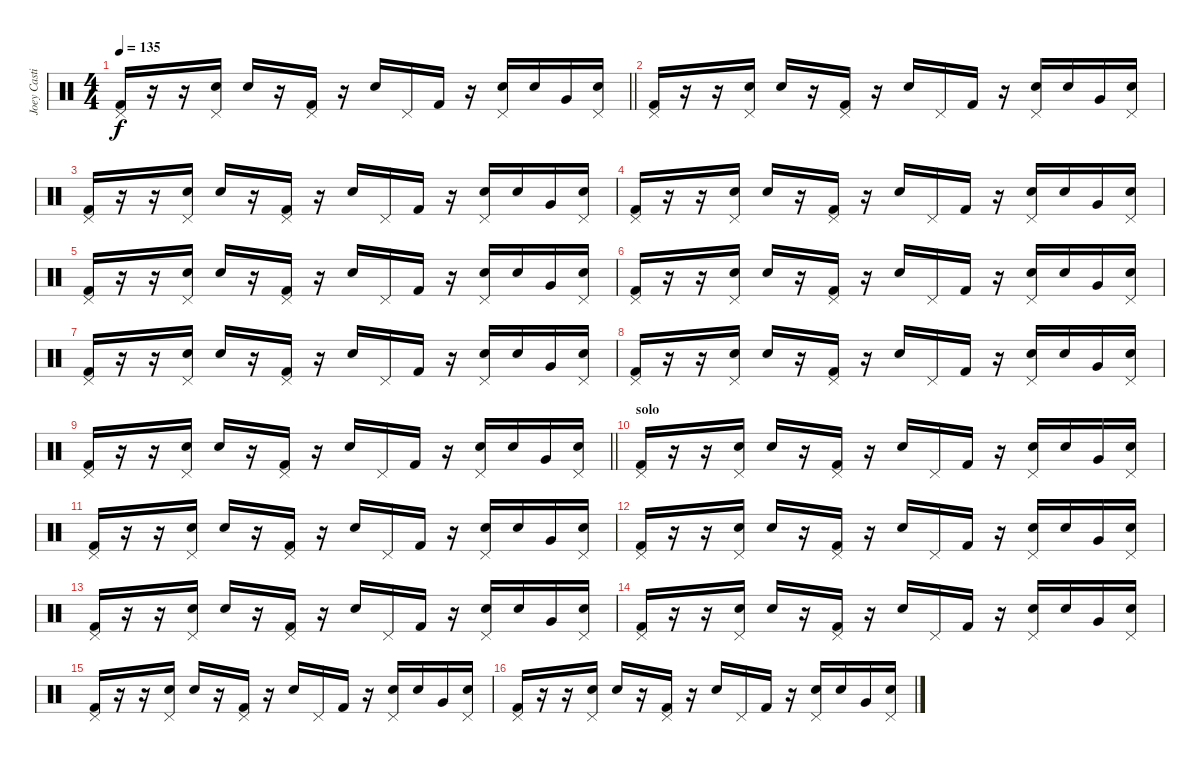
\track ("Joey Castillo" "Joey Casti") {instrument percussion}
\staff {score}
\articulation defaults
\ts (4 4)
\tempo 135
\clef neutral
\barLineRight lightlight
\ks c
("Kick (hit) 2" "Pedal Hi-Hat (hit)").16{dy f} r.16 r.16 ("Electric Snare (hit)" "Pedal Hi-Hat (hit)").16 "Electric Snare (hit)".16 r.16 ("Kick (hit) 2" "Pedal Hi-Hat (hit)").16 r.16 "Electric Snare (hit)".16 "Pedal Hi-Hat (hit)".16 "Kick (hit) 2".16 r.16 ("Electric Snare (hit)" "Pedal Hi-Hat (hit)").16 "Electric Snare (hit)".16 "Very Low Tom (hit)".16 ("Electric Snare (hit)" "Pedal Hi-Hat (hit)").16 |
("Kick (hit) 2" "Pedal Hi-Hat (hit)").16 r.16 r.16 ("Electric Snare (hit)" "Pedal Hi-Hat (hit)").16 "Electric Snare (hit)".16 r.16 ("Kick (hit) 2" "Pedal Hi-Hat (hit)").16 r.16 "Electric Snare (hit)".16 "Pedal Hi-Hat (hit)".16 "Kick (hit) 2".16 r.16 ("Electric Snare (hit)" "Pedal Hi-Hat (hit)").16 "Electric Snare (hit)".16 "Very Low Tom (hit)".16 ("Electric Snare (hit)" "Pedal Hi-Hat (hit)").16 |
("Kick (hit) 2" "Pedal Hi-Hat (hit)").16 r.16 r.16 ("Electric Snare (hit)" "Pedal Hi-Hat (hit)").16 "Electric Snare (hit)".16 r.16 ("Kick (hit) 2" "Pedal Hi-Hat (hit)").16 r.16 "Electric Snare (hit)".16 "Pedal Hi-Hat (hit)".16 "Kick (hit) 2".16 r.16 ("Electric Snare (hit)" "Pedal Hi-Hat (hit)").16 "Electric Snare (hit)".16 "Very Low Tom (hit)".16 ("Electric Snare (hit)" "Pedal Hi-Hat (hit)").16 |
("Kick (hit) 2" "Pedal Hi-Hat (hit)").16 r.16 r.16 ("Electric Snare (hit)" "Pedal Hi-Hat (hit)").16 "Electric Snare (hit)".16 r.16 ("Kick (hit) 2" "Pedal Hi-Hat (hit)").16 r.16 "Electric Snare (hit)".16 "Pedal Hi-Hat (hit)".16 "Kick (hit) 2".16 r.16 ("Electric Snare (hit)" "Pedal Hi-Hat (hit)").16 "Electric Snare (hit)".16 "Very Low Tom (hit)".16 ("Electric Snare (hit)" "Pedal Hi-Hat (hit)").16 |
("Kick (hit) 2" "Pedal Hi-Hat (hit)").16 r.16 r.16 ("Electric Snare (hit)" "Pedal Hi-Hat (hit)").16 "Electric Snare (hit)".16 r.16 ("Kick (hit) 2" "Pedal Hi-Hat (hit)").16 r.16 "Electric Snare (hit)".16 "Pedal Hi-Hat (hit)".16 "Kick (hit) 2".16 r.16 ("Electric Snare (hit)" "Pedal Hi-Hat (hit)").16 "Electric Snare (hit)".16 "Very Low Tom (hit)".16 ("Electric Snare (hit)" "Pedal Hi-Hat (hit)").16 |
("Kick (hit) 2" "Pedal Hi-Hat (hit)").16 r.16 r.16 ("Electric Snare (hit)" "Pedal Hi-Hat (hit)").16 "Electric Snare (hit)".16 r.16 ("Kick (hit) 2" "Pedal Hi-Hat (hit)").16 r.16 "Electric Snare (hit)".16 "Pedal Hi-Hat (hit)".16 "Kick (hit) 2".16 r.16 ("Electric Snare (hit)" "Pedal Hi-Hat (hit)").16 "Electric Snare (hit)".16 "Very Low Tom (hit)".16 ("Electric Snare (hit)" "Pedal Hi-Hat (hit)").16 |
("Kick (hit) 2" "Pedal Hi-Hat (hit)").16 r.16 r.16 ("Electric Snare (hit)" "Pedal Hi-Hat (hit)").16 "Electric Snare (hit)".16 r.16 ("Kick (hit) 2" "Pedal Hi-Hat (hit)").16 r.16 "Electric Snare (hit)".16 "Pedal Hi-Hat (hit)".16 "Kick (hit) 2".16 r.16 ("Electric Snare (hit)" "Pedal Hi-Hat (hit)").16 "Electric Snare (hit)".16 "Very Low Tom (hit)".16 ("Electric Snare (hit)" "Pedal Hi-Hat (hit)").16 |
("Kick (hit) 2" "Pedal Hi-Hat (hit)").16 r.16 r.16 ("Electric Snare (hit)" "Pedal Hi-Hat (hit)").16 "Electric Snare (hit)".16 r.16 ("Kick (hit) 2" "Pedal Hi-Hat (hit)").16 r.16 "Electric Snare (hit)".16 "Pedal Hi-Hat (hit)".16 "Kick (hit) 2".16 r.16 ("Electric Snare (hit)" "Pedal Hi-Hat (hit)").16 "Electric Snare (hit)".16 "Very Low Tom (hit)".16 ("Electric Snare (hit)" "Pedal Hi-Hat (hit)").16 |
\barLineRight lightlight
("Kick (hit) 2" "Pedal Hi-Hat (hit)").16 r.16 r.16 ("Electric Snare (hit)" "Pedal Hi-Hat (hit)").16 "Electric Snare (hit)".16 r.16 ("Kick (hit) 2" "Pedal Hi-Hat (hit)").16 r.16 "Electric Snare (hit)".16 "Pedal Hi-Hat (hit)".16 "Kick (hit) 2".16 r.16 ("Electric Snare (hit)" "Pedal Hi-Hat (hit)").16 "Electric Snare (hit)".16 "Very Low Tom (hit)".16 ("Electric Snare (hit)" "Pedal Hi-Hat (hit)").16 |
\section ("" "solo")
("Kick (hit) 2" "Pedal Hi-Hat (hit)").16 r.16 r.16 ("Electric Snare (hit)" "Pedal Hi-Hat (hit)").16 "Electric Snare (hit)".16 r.16 ("Kick (hit) 2" "Pedal Hi-Hat (hit)").16 r.16 "Electric Snare (hit)".16 "Pedal Hi-Hat (hit)".16 "Kick (hit) 2".16 r.16 ("Electric Snare (hit)" "Pedal Hi-Hat (hit)").16 "Electric Snare (hit)".16 "Very Low Tom (hit)".16 ("Electric Snare (hit)" "Pedal Hi-Hat (hit)").16 |
("Kick (hit) 2" "Pedal Hi-Hat (hit)").16 r.16 r.16 ("Electric Snare (hit)" "Pedal Hi-Hat (hit)").16 "Electric Snare (hit)".16 r.16 ("Kick (hit) 2" "Pedal Hi-Hat (hit)").16 r.16 "Electric Snare (hit)".16 "Pedal Hi-Hat (hit)".16 "Kick (hit) 2".16 r.16 ("Electric Snare (hit)" "Pedal Hi-Hat (hit)").16 "Electric Snare (hit)".16 "Very Low Tom (hit)".16 ("Electric Snare (hit)" "Pedal Hi-Hat (hit)").16 |
("Kick (hit) 2" "Pedal Hi-Hat (hit)").16 r.16 r.16 ("Electric Snare (hit)" "Pedal Hi-Hat (hit)").16 "Electric Snare (hit)".16 r.16 ("Kick (hit) 2" "Pedal Hi-Hat (hit)").16 r.16 "Electric Snare (hit)".16 "Pedal Hi-Hat (hit)".16 "Kick (hit) 2".16 r.16 ("Electric Snare (hit)" "Pedal Hi-Hat (hit)").16 "Electric Snare (hit)".16 "Very Low Tom (hit)".16 ("Electric Snare (hit)" "Pedal Hi-Hat (hit)").16 |
("Kick (hit) 2" "Pedal Hi-Hat (hit)").16 r.16 r.16 ("Electric Snare (hit)" "Pedal Hi-Hat (hit)").16 "Electric Snare (hit)".16 r.16 ("Kick (hit) 2" "Pedal Hi-Hat (hit)").16 r.16 "Electric Snare (hit)".16 "Pedal Hi-Hat (hit)".16 "Kick (hit) 2".16 r.16 ("Electric Snare (hit)" "Pedal Hi-Hat (hit)").16 "Electric Snare (hit)".16 "Very Low Tom (hit)".16 ("Electric Snare (hit)" "Pedal Hi-Hat (hit)").16 |
("Kick (hit) 2" "Pedal Hi-Hat (hit)").16 r.16 r.16 ("Electric Snare (hit)" "Pedal Hi-Hat (hit)").16 "Electric Snare (hit)".16 r.16 ("Kick (hit) 2" "Pedal Hi-Hat (hit)").16 r.16 "Electric Snare (hit)".16 "Pedal Hi-Hat (hit)".16 "Kick (hit) 2".16 r.16 ("Electric Snare (hit)" "Pedal Hi-Hat (hit)").16 "Electric Snare (hit)".16 "Very Low Tom (hit)".16 ("Electric Snare (hit)" "Pedal Hi-Hat (hit)").16 |
("Kick (hit) 2" "Pedal Hi-Hat (hit)").16 r.16 r.16 ("Electric Snare (hit)" "Pedal Hi-Hat (hit)").16 "Electric Snare (hit)".16 r.16 ("Kick (hit) 2" "Pedal Hi-Hat (hit)").16 r.16 "Electric Snare (hit)".16 "Pedal Hi-Hat (hit)".16 "Kick (hit) 2".16 r.16 ("Electric Snare (hit)" "Pedal Hi-Hat (hit)").16 "Electric Snare (hit)".16 "Very Low Tom (hit)".16 ("Electric Snare (hit)" "Pedal Hi-Hat (hit)").16 |
("Kick (hit) 2" "Pedal Hi-Hat (hit)").16 r.16 r.16 ("Electric Snare (hit)" "Pedal Hi-Hat (hit)").16 "Electric Snare (hit)".16 r.16 ("Kick (hit) 2" "Pedal Hi-Hat (hit)").16 r.16 "Electric Snare (hit)".16 "Pedal Hi-Hat (hit)".16 "Kick (hit) 2".16 r.16 ("Electric Snare (hit)" "Pedal Hi-Hat (hit)").16 "Electric Snare (hit)".16 "Very Low Tom (hit)".16 ("Electric Snare (hit)" "Pedal Hi-Hat (hit)").16
